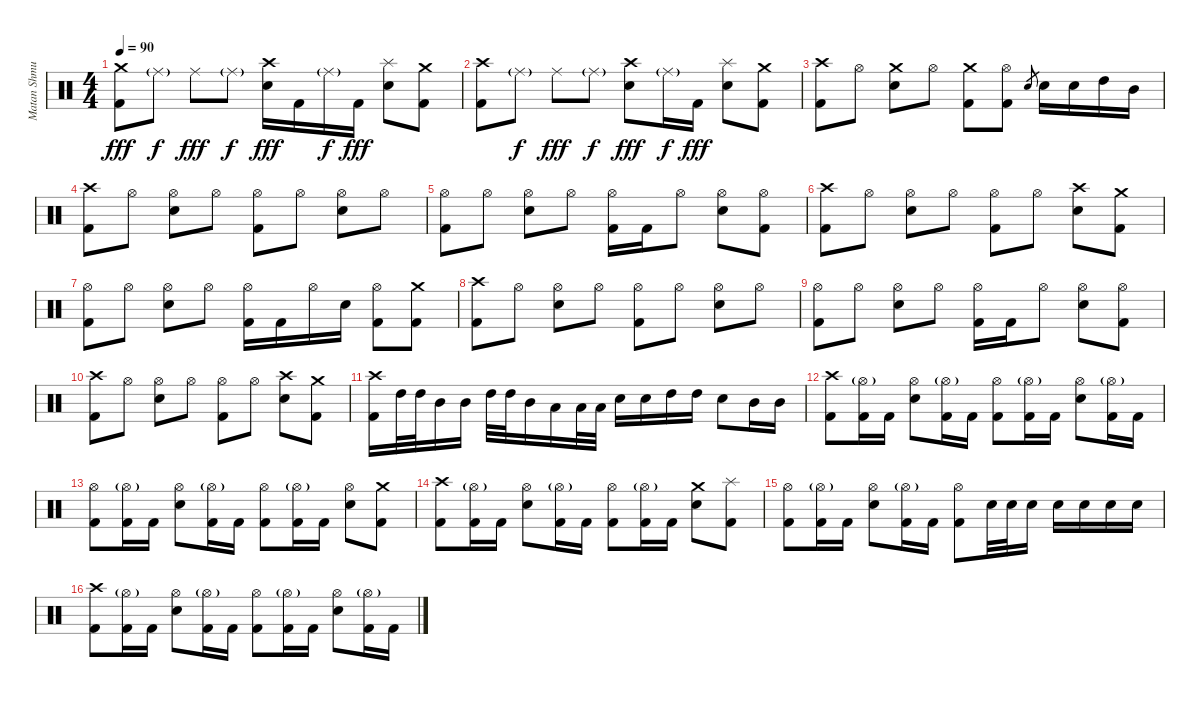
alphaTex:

\track ("Matan Shmuely " "Matan Shmu") {instrument percussion}
\staff {score}
\articulation defaults
\ts (4 4)
\tempo 90
\clef neutral
\ks c
("Kick (hit) 2" "Crash medium (hit)").8{dy fff} "Ride (middle)"{g}.8{dy f} "Ride (middle)".8{dy fff} "Ride (middle)"{g}.8{dy f} ("Electric Snare (hit)" "Crash high (hit)").16{dy fff} "Kick (hit) 2".16 "Ride (middle)"{g}.16{dy f} "Kick (hit) 2".16{dy fff} ("Electric Snare (hit)" "Splash (hit)").8 ("Kick (hit) 2" "Crash medium (hit)").8 |
("Kick (hit) 2" "Crash high (hit)").8 "Ride (middle)"{g}.8{dy f} "Ride (middle)".8{dy fff} "Ride (middle)"{g}.8{dy f} ("Electric Snare (hit)" "Crash high (hit)").8{dy fff} "Ride (middle)"{g}.16{dy f} "Kick (hit) 2".16{dy fff} ("Electric Snare (hit)" "Splash (hit)").8 ("Kick (hit) 2" "Crash medium (hit)").8 |
("Kick (hit) 2" "Crash high (hit)").8 "Hi-Hat (open)".8 ("Electric Snare (hit)" "Crash medium (hit)").8 "Hi-Hat (open)".8 ("Kick (hit) 2" "Crash medium (hit)").8 ("Kick (hit) 2" "Hi-Hat (open)").8 "Electric Snare (hit)".8{gr} "Electric Snare (hit)".16 "Electric Snare (hit)".16 "High Tom (hit)".16 "Mid Tom (hit)".16 |
("Kick (hit) 2" "Crash high (hit)").8 "Hi-Hat (open)".8 ("Electric Snare (hit)" "Hi-Hat (open)").8 "Hi-Hat (open)".8 ("Kick (hit) 2" "Hi-Hat (open)").8 "Hi-Hat (open)".8 ("Electric Snare (hit)" "Hi-Hat (open)").8 "Hi-Hat (open)".8 |
("Kick (hit) 2" "Hi-Hat (open)").8 "Hi-Hat (open)".8 ("Electric Snare (hit)" "Hi-Hat (open)").8 "Hi-Hat (open)".8 ("Kick (hit) 2" "Hi-Hat (open)").16 "Kick (hit) 2".16 "Hi-Hat (open)".8 ("Electric Snare (hit)" "Hi-Hat (open)").8 ("Kick (hit) 2" "Hi-Hat (open)").8 |
("Kick (hit) 2" "Crash high (hit)").8 "Hi-Hat (open)".8 ("Electric Snare (hit)" "Hi-Hat (open)").8 "Hi-Hat (open)".8 ("Kick (hit) 2" "Hi-Hat (open)").8 "Hi-Hat (open)".8 ("Electric Snare (hit)" "Crash high (hit)").8 ("Kick (hit) 2" "Crash medium (hit)").8 |
("Kick (hit) 2" "Hi-Hat (open)").8 "Hi-Hat (open)".8 ("Electric Snare (hit)" "Hi-Hat (open)").8 "Hi-Hat (open)".8 ("Kick (hit) 2" "Hi-Hat (open)").16 "Kick (hit) 2".16 "Hi-Hat (open)".16 "Electric Snare (hit)".16 ("Kick (hit) 2" "Hi-Hat (open)").8 ("Kick (hit) 2" "Crash medium (hit)").8 |
("Kick (hit) 2" "Crash high (hit)").8 "Hi-Hat (open)".8 ("Electric Snare (hit)" "Hi-Hat (open)").8 "Hi-Hat (open)".8 ("Kick (hit) 2" "Hi-Hat (open)").8 "Hi-Hat (open)".8 ("Electric Snare (hit)" "Hi-Hat (open)").8 "Hi-Hat (open)".8 |
("Kick (hit) 2" "Hi-Hat (open)").8 "Hi-Hat (open)".8 ("Electric Snare (hit)" "Hi-Hat (open)").8 "Hi-Hat (open)".8 ("Kick (hit) 2" "Hi-Hat (open)").16 "Kick (hit) 2".16 "Hi-Hat (open)".8 ("Electric Snare (hit)" "Hi-Hat (open)").8 ("Kick (hit) 2" "Hi-Hat (open)").8 |
("Kick (hit) 2" "Crash high (hit)").8 "Hi-Hat (open)".8 ("Electric Snare (hit)" "Hi-Hat (open)").8 "Hi-Hat (open)".8 ("Kick (hit) 2" "Hi-Hat (open)").8 "Hi-Hat (open)".8 ("Electric Snare (hit)" "Crash high (hit)").8 ("Kick (hit) 2" "Crash medium (hit)").8 |
("Kick (hit) 2" "Crash high (hit)").16 "High Tom (hit)".32 "High Tom (hit)".32 "Mid Tom (hit)".16 "Mid Tom (hit)".16 "High Tom (hit)".32 "High Tom (hit)".32 "Mid Tom (hit)".16 "Low Tom (hit)".16 "Low Tom (hit)".32 "Low Tom (hit)".32 "Electric Snare (hit)".16 "Electric Snare (hit)".16 "High Tom (hit)".16 "High Tom (hit)".16 "Electric Snare (hit)".8 "Mid Tom (hit)".16 "Mid Tom (hit)".16 |
("Kick (hit) 2" "Crash high (hit)").8 ("Kick (hit) 2" "Hi-Hat (open)"{g}).16 "Kick (hit) 2".16 ("Electric Snare (hit)" "Hi-Hat (open)").8 ("Kick (hit) 2" "Hi-Hat (open)"{g}).16 "Kick (hit) 2".16 ("Kick (hit) 2" "Hi-Hat (open)").8 ("Kick (hit) 2" "Hi-Hat (open)"{g}).16 "Kick (hit) 2".16 ("Electric Snare (hit)" "Hi-Hat (open)").8 ("Kick (hit) 2" "Hi-Hat (open)"{g}).16 "Kick (hit) 2".16 |
("Kick (hit) 2" "Hi-Hat (open)").8 ("Kick (hit) 2" "Hi-Hat (open)"{g}).16 "Kick (hit) 2".16 ("Electric Snare (hit)" "Hi-Hat (open)").8 ("Kick (hit) 2" "Hi-Hat (open)"{g}).16 "Kick (hit) 2".16 ("Kick (hit) 2" "Hi-Hat (open)").8 ("Kick (hit) 2" "Hi-Hat (open)"{g}).16 "Kick (hit) 2".16 ("Electric Snare (hit)" "Hi-Hat (open)").8 ("Kick (hit) 2" "Crash medium (hit)").8 |
("Kick (hit) 2" "Crash high (hit)").8 ("Kick (hit) 2" "Hi-Hat (open)"{g}).16 "Kick (hit) 2".16 ("Electric Snare (hit)" "Hi-Hat (open)").8 ("Kick (hit) 2" "Hi-Hat (open)"{g}).16 "Kick (hit) 2".16 ("Kick (hit) 2" "Hi-Hat (open)").8 ("Kick (hit) 2" "Hi-Hat (open)"{g}).16 "Kick (hit) 2".16 ("Electric Snare (hit)" "Crash medium (hit)").8 ("Kick (hit) 2" "Splash (hit)").8 |
("Kick (hit) 2" "Hi-Hat (open)").8 ("Kick (hit) 2" "Hi-Hat (open)"{g}).16 "Kick (hit) 2".16 ("Electric Snare (hit)" "Hi-Hat (open)").8 ("Kick (hit) 2" "Hi-Hat (open)"{g}).16 "Kick (hit) 2".16 ("Kick (hit) 2" "Hi-Hat (open)").8 "Electric Snare (hit)".32 "Electric Snare (hit)".32 "Electric Snare (hit)".16 "Electric Snare (hit)".16 "Electric Snare (hit)".16 "Electric Snare (hit)".16 "Electric Snare (hit)".16 |
("Kick (hit) 2" "Crash high (hit)").8 ("Kick (hit) 2" "Hi-Hat (open)"{g}).16 "Kick (hit) 2".16 ("Electric Snare (hit)" "Hi-Hat (open)").8 ("Kick (hit) 2" "Hi-Hat (open)"{g}).16 "Kick (hit) 2".16 ("Kick (hit) 2" "Hi-Hat (open)").8 ("Kick (hit) 2" "Hi-Hat (open)"{g}).16 "Kick (hit) 2".16 ("Electric Snare (hit)" "Hi-Hat (open)").8 ("Kick (hit) 2" "Hi-Hat (open)"{g}).16 "Kick (hit) 2".16
